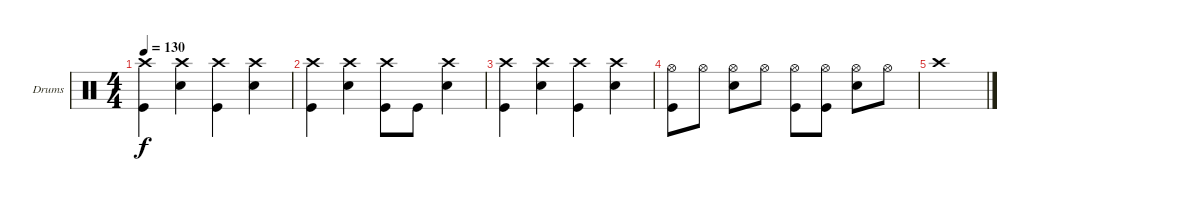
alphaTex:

\bracketExtendMode groupsimilarinstruments
\firstSystemTrackNameOrientation horizontal
\otherSystemsTrackNameOrientation horizontal
\track ("Drumkit" "Drums") {instrument percussion}
\staff {score}
\articulation defaults
\ts (4 4)
\tempo 130
\clef neutral
\ks c
("Kick (hit)" "Crash high (hit)").4{dy f} ("Snare (hit) 2" "Crash high (hit)").4 ("Kick (hit)" "Crash high (hit)").4 ("Snare (hit) 2" "Crash high (hit)").4 |
("Kick (hit)" "Crash high (hit)").4 ("Snare (hit) 2" "Crash high (hit)").4 ("Kick (hit)" "Crash high (hit)").8 "Kick (hit)".8 ("Snare (hit) 2" "Crash high (hit)").4 |
("Kick (hit)" "Crash high (hit)").4 ("Snare (hit) 2" "Crash high (hit)").4 ("Kick (hit)" "Crash high (hit)").4 ("Snare (hit) 2" "Crash high (hit)").4 |
("Kick (hit)" "Hi-Hat (open)").8 "Hi-Hat (open)".8 ("Hi-Hat (open)" "Snare (hit) 2").8 "Hi-Hat (open)".8 ("Hi-Hat (open)" "Kick (hit)").8 ("Hi-Hat (open)" "Kick (hit)").8 ("Hi-Hat (open)" "Snare (hit) 2").8 "Hi-Hat (open)".8 |
"Crash high (hit)".1
